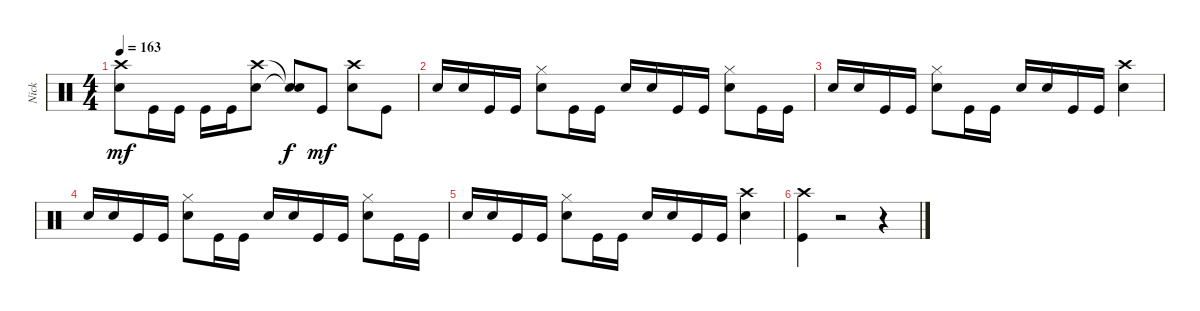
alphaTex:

\track ("Nick" "Nick") {instrument percussion}
\staff {score}
\articulation defaults
\ts (4 4)
\tempo 163
\clef neutral
\ks c
("Crash high (hit)" "Snare (hit) 2").8{dy mf} "Kick (hit)".16 "Kick (hit)".16 "Kick (hit)".16 "Kick (hit)".16 ("Crash high (hit)" "Snare (hit) 2").8 ("Snare (hit)"{t} "Snare (hit)"{t}).8{dy f} "Kick (hit)".8{dy mf} ("Crash high (hit)" "Snare (hit) 2").8 "Kick (hit)".8 |
"Snare (hit) 2".16 "Snare (hit) 2".16 "Kick (hit)".16 "Kick (hit)".16 ("Hi-Hat (closed)" "Snare (hit) 2").8 "Kick (hit)".16 "Kick (hit)".16 "Snare (hit) 2".16 "Snare (hit) 2".16 "Kick (hit)".16 "Kick (hit)".16 ("Hi-Hat (closed)" "Snare (hit) 2").8 "Kick (hit)".16 "Kick (hit)".16 |
"Snare (hit) 2".16 "Snare (hit) 2".16 "Kick (hit)".16 "Kick (hit)".16 ("Hi-Hat (closed)" "Snare (hit) 2").8 "Kick (hit)".16 "Kick (hit)".16 "Snare (hit) 2".16 "Snare (hit) 2".16 "Kick (hit)".16 "Kick (hit)".16 ("Crash high (hit)" "Snare (hit) 2").4 |
"Snare (hit) 2".16 "Snare (hit) 2".16 "Kick (hit)".16 "Kick (hit)".16 ("Hi-Hat (closed)" "Snare (hit) 2").8 "Kick (hit)".16 "Kick (hit)".16 "Snare (hit) 2".16 "Snare (hit) 2".16 "Kick (hit)".16 "Kick (hit)".16 ("Hi-Hat (closed)" "Snare (hit) 2").8 "Kick (hit)".16 "Kick (hit)".16 |
"Snare (hit) 2".16 "Snare (hit) 2".16 "Kick (hit)".16 "Kick (hit)".16 ("Hi-Hat (closed)" "Snare (hit) 2").8 "Kick (hit)".16 "Kick (hit)".16 "Snare (hit) 2".16 "Snare (hit) 2".16 "Kick (hit)".16 "Kick (hit)".16 ("Crash high (hit)" "Snare (hit) 2").4 |
("Kick (hit)" "Crash high (hit)").4 r.2 r.4
